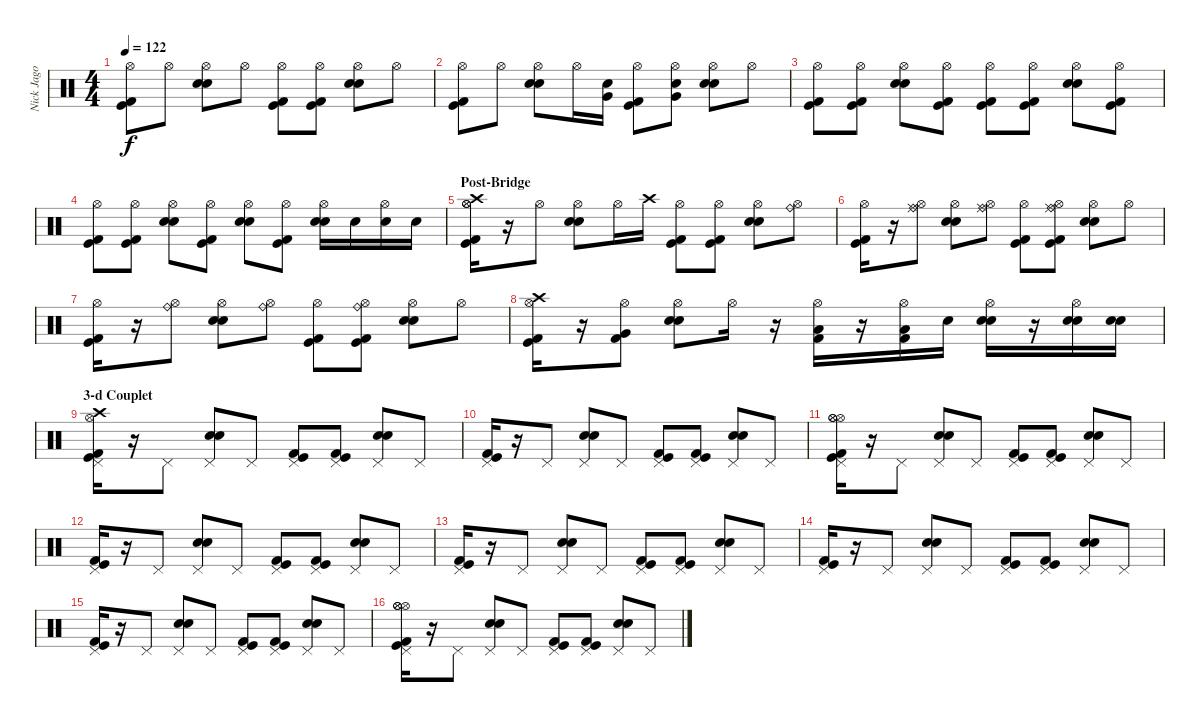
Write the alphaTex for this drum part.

\track ("Nick Jago - Drums" "Nick Jago ") {instrument percussion}
\staff {score}
\articulation defaults
\ts (4 4)
\tempo 122
\clef neutral
\ks c
("Hi-Hat (open)" "Kick (hit)" "Kick (hit) 2").8{dy f} "Hi-Hat (open)".8 ("Hi-Hat (open)" "Electric Snare (hit)" "Snare (hit) 2").8 "Hi-Hat (open)".8 ("Hi-Hat (open)" "Kick (hit)" "Kick (hit) 2").8 ("Hi-Hat (open)" "Kick (hit)" "Kick (hit) 2").8 ("Hi-Hat (open)" "Electric Snare (hit)" "Snare (hit) 2").8 "Hi-Hat (open)".8 |
("Hi-Hat (open)" "Kick (hit)" "Kick (hit) 2").8 "Hi-Hat (open)".8 ("Hi-Hat (open)" "Electric Snare (hit)" "Snare (hit) 2").8 "Hi-Hat (open)".16 ("Very Low Tom (hit)" "Snare (hit) 2").16 ("Hi-Hat (open)" "Kick (hit)" "Kick (hit) 2").8 ("Hi-Hat (open)" "Snare (hit) 2" "Very Low Tom (hit)").8 ("Hi-Hat (open)" "Electric Snare (hit)" "Snare (hit) 2").8 "Hi-Hat (open)".8 |
("Hi-Hat (open)" "Kick (hit)" "Kick (hit) 2").8 ("Hi-Hat (open)" "Kick (hit)" "Kick (hit) 2").8 ("Hi-Hat (open)" "Electric Snare (hit)" "Snare (hit) 2").8 ("Hi-Hat (open)" "Kick (hit)" "Kick (hit) 2").8 ("Hi-Hat (open)" "Kick (hit)" "Kick (hit) 2").8 ("Hi-Hat (open)" "Kick (hit)" "Kick (hit) 2").8 ("Hi-Hat (open)" "Electric Snare (hit)" "Snare (hit) 2").8 ("Hi-Hat (open)" "Kick (hit)" "Kick (hit) 2").8 |
("Hi-Hat (open)" "Kick (hit)" "Kick (hit) 2").8 ("Hi-Hat (open)" "Kick (hit)" "Kick (hit) 2").8 ("Hi-Hat (open)" "Electric Snare (hit)" "Snare (hit) 2").8 ("Hi-Hat (open)" "Kick (hit)" "Kick (hit) 2").8 ("Hi-Hat (open)" "Electric Snare (hit)" "Snare (hit) 2").8 ("Hi-Hat (open)" "Kick (hit)" "Kick (hit) 2").8 ("Hi-Hat (open)" "Electric Snare (hit)" "Snare (hit) 2").16 "Electric Snare (hit)".16 ("Hi-Hat (open)" "Electric Snare (hit)").16 "Electric Snare (hit)".16 |
\section ("" "Post-Bridge")
("Hi-Hat (open)" "Hi-Hat (open)" "Crash high (hit)" "Kick (hit)" "Kick (hit) 2").16 r.16 "Hi-Hat (open)".8 ("Hi-Hat (open)" "Snare (hit) 2" "Electric Snare (hit)").8 "Hi-Hat (open)".16 "Crash high (hit)".16 ("Hi-Hat (open)" "Kick (hit)" "Kick (hit) 2").8 ("Hi-Hat (open)" "Kick (hit)" "Kick (hit) 2").8 ("Hi-Hat (open)" "Snare (hit) 2" "Electric Snare (hit)").8 ("Hi-Hat (open)" "Ride (bell)").8 |
("Hi-Hat (open)" "Kick (hit)" "Kick (hit) 2").16 r.16 ("Hi-Hat (open)" "Ride (bell)" "Ride (middle)").8 ("Hi-Hat (open)" "Snare (hit) 2" "Electric Snare (hit)").8 ("Hi-Hat (open)" "Ride (middle)" "Ride (bell)").8 ("Hi-Hat (open)" "Kick (hit)" "Kick (hit) 2").8 ("Hi-Hat (open)" "Ride (middle)" "Ride (bell)" "Kick (hit)" "Kick (hit) 2").8 ("Hi-Hat (open)" "Snare (hit) 2" "Electric Snare (hit)").8 "Hi-Hat (open)".8 |
("Hi-Hat (open)" "Kick (hit)" "Kick (hit) 2").16 r.16 ("Hi-Hat (open)" "Ride (bell)").8 ("Hi-Hat (open)" "Snare (hit) 2" "Electric Snare (hit)").8 ("Hi-Hat (open)" "Ride (bell)").8 ("Hi-Hat (open)" "Kick (hit)" "Kick (hit) 2").8 ("Hi-Hat (open)" "Ride (bell)" "Kick (hit)" "Kick (hit) 2").8 ("Hi-Hat (open)" "Snare (hit) 2" "Electric Snare (hit)").8 "Hi-Hat (open)".8 |
("Hi-Hat (open)" "Crash high (hit)" "Kick (hit)" "Kick (hit) 2").16 r.16 ("Hi-Hat (open)" "Kick (hit) 2" "Very Low Tom (hit)").8 ("Hi-Hat (open)" "Snare (hit) 2" "Electric Snare (hit)").8 "Hi-Hat (open)".16 r.16 ("Hi-Hat (open)" "Kick (hit) 2" "Low Floor Tom (hit)").16 r.16 ("Hi-Hat (open)" "Kick (hit) 2" "Low Floor Tom (hit)").16 "Electric Snare (hit)".16 ("Hi-Hat (open)" "Snare (hit) 2" "Electric Snare (hit)").16 r.16 ("Hi-Hat (open)" "Snare (hit) 2" "Electric Snare (hit)").16 ("Snare (hit) 2" "Electric Snare (hit)").16 |
\section ("" "3-d Couplet")
("Pedal Hi-Hat (hit)" "Hi-Hat (open)" "Crash high (hit)" "Kick (hit)" "Kick (hit) 2").16 r.16 "Pedal Hi-Hat (hit)".8 ("Pedal Hi-Hat (hit)" "Snare (hit) 2" "Electric Snare (hit)").8 "Pedal Hi-Hat (hit)".8 ("Pedal Hi-Hat (hit)" "Kick (hit)" "Kick (hit) 2").8 ("Pedal Hi-Hat (hit)" "Kick (hit)" "Kick (hit) 2").8 ("Pedal Hi-Hat (hit)" "Snare (hit) 2" "Electric Snare (hit)").8 "Pedal Hi-Hat (hit)".8 |
("Pedal Hi-Hat (hit)" "Kick (hit)" "Kick (hit) 2").16 r.16 "Pedal Hi-Hat (hit)".8 ("Pedal Hi-Hat (hit)" "Snare (hit) 2" "Electric Snare (hit)").8 "Pedal Hi-Hat (hit)".8 ("Pedal Hi-Hat (hit)" "Kick (hit)" "Kick (hit) 2").8 ("Pedal Hi-Hat (hit)" "Kick (hit)" "Kick (hit) 2").8 ("Pedal Hi-Hat (hit)" "Snare (hit) 2" "Electric Snare (hit)").8 "Pedal Hi-Hat (hit)".8 |
("Pedal Hi-Hat (hit)" "Hi-Hat (open)" "Hi-Hat (open)" "Hi-Hat (open)" "Kick (hit)" "Kick (hit) 2").16 r.16 "Pedal Hi-Hat (hit)".8 ("Pedal Hi-Hat (hit)" "Snare (hit) 2" "Electric Snare (hit)").8 "Pedal Hi-Hat (hit)".8 ("Pedal Hi-Hat (hit)" "Kick (hit)" "Kick (hit) 2").8 ("Pedal Hi-Hat (hit)" "Kick (hit)" "Kick (hit) 2").8 ("Pedal Hi-Hat (hit)" "Snare (hit) 2" "Electric Snare (hit)").8 "Pedal Hi-Hat (hit)".8 |
("Pedal Hi-Hat (hit)" "Kick (hit)" "Kick (hit) 2").16 r.16 "Pedal Hi-Hat (hit)".8 ("Pedal Hi-Hat (hit)" "Snare (hit) 2" "Electric Snare (hit)").8 "Pedal Hi-Hat (hit)".8 ("Pedal Hi-Hat (hit)" "Kick (hit)" "Kick (hit) 2").8 ("Pedal Hi-Hat (hit)" "Kick (hit)" "Kick (hit) 2").8 ("Pedal Hi-Hat (hit)" "Snare (hit) 2" "Electric Snare (hit)").8 "Pedal Hi-Hat (hit)".8 |
("Pedal Hi-Hat (hit)" "Kick (hit)" "Kick (hit) 2").16 r.16 "Pedal Hi-Hat (hit)".8 ("Pedal Hi-Hat (hit)" "Snare (hit) 2" "Electric Snare (hit)").8 "Pedal Hi-Hat (hit)".8 ("Pedal Hi-Hat (hit)" "Kick (hit)" "Kick (hit) 2").8 ("Pedal Hi-Hat (hit)" "Kick (hit)" "Kick (hit) 2").8 ("Pedal Hi-Hat (hit)" "Snare (hit) 2" "Electric Snare (hit)").8 "Pedal Hi-Hat (hit)".8 |
("Pedal Hi-Hat (hit)" "Kick (hit)" "Kick (hit) 2").16 r.16 "Pedal Hi-Hat (hit)".8 ("Pedal Hi-Hat (hit)" "Snare (hit) 2" "Electric Snare (hit)").8 "Pedal Hi-Hat (hit)".8 ("Pedal Hi-Hat (hit)" "Kick (hit)" "Kick (hit) 2").8 ("Pedal Hi-Hat (hit)" "Kick (hit)" "Kick (hit) 2").8 ("Pedal Hi-Hat (hit)" "Snare (hit) 2" "Electric Snare (hit)").8 "Pedal Hi-Hat (hit)".8 |
("Pedal Hi-Hat (hit)" "Kick (hit)" "Kick (hit) 2").16 r.16 "Pedal Hi-Hat (hit)".8 ("Pedal Hi-Hat (hit)" "Snare (hit) 2" "Electric Snare (hit)").8 "Pedal Hi-Hat (hit)".8 ("Pedal Hi-Hat (hit)" "Kick (hit)" "Kick (hit) 2").8 ("Pedal Hi-Hat (hit)" "Kick (hit)" "Kick (hit) 2").8 ("Pedal Hi-Hat (hit)" "Snare (hit) 2" "Electric Snare (hit)").8 "Pedal Hi-Hat (hit)".8 |
("Pedal Hi-Hat (hit)" "Hi-Hat (open)" "Hi-Hat (open)" "Hi-Hat (open)" "Kick (hit)" "Kick (hit) 2").16 r.16 "Pedal Hi-Hat (hit)".8 ("Pedal Hi-Hat (hit)" "Snare (hit) 2" "Electric Snare (hit)").8 "Pedal Hi-Hat (hit)".8 ("Pedal Hi-Hat (hit)" "Kick (hit)" "Kick (hit) 2").8 ("Pedal Hi-Hat (hit)" "Kick (hit)" "Kick (hit) 2").8 ("Pedal Hi-Hat (hit)" "Snare (hit) 2" "Electric Snare (hit)").8 "Pedal Hi-Hat (hit)".8
